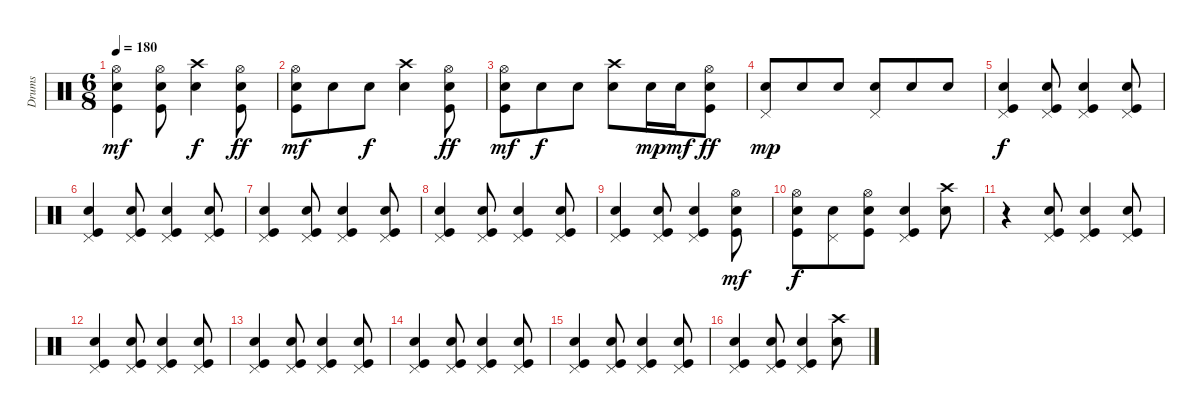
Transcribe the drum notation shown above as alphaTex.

\track ("Drums" "Drums") {instrument percussion}
\staff {score}
\articulation defaults
\ts (6 8)
\tempo 180
\clef neutral
\ks c
("Hi-Hat (open)" "Electric Snare (hit)" "Kick (hit)").4{dy mf} ("Hi-Hat (open)" "Electric Snare (hit)" "Kick (hit)").8 ("Crash high (hit)" "Electric Snare (hit)").4{dy f} ("Hi-Hat (open)" "Electric Snare (hit)" "Kick (hit)").8{dy ff} |
("Hi-Hat (open)" "Electric Snare (hit)" "Kick (hit)").8{dy mf} "Electric Snare (hit)".8 "Electric Snare (hit)".8{dy f} ("Crash high (hit)" "Electric Snare (hit)").4 ("Hi-Hat (open)" "Electric Snare (hit)" "Kick (hit)").8{dy ff} |
("Hi-Hat (open)" "Electric Snare (hit)" "Kick (hit)").8{dy mf} "Electric Snare (hit)".8{dy f} "Electric Snare (hit)".8 ("Crash high (hit)" "Electric Snare (hit)").8 "Electric Snare (hit)".16{dy mp} "Electric Snare (hit)".16{dy mf} ("Hi-Hat (open)" "Electric Snare (hit)" "Kick (hit)").8{dy ff} |
("Pedal Hi-Hat (hit)" "Electric Snare (hit)").8{dy mp} "Electric Snare (hit)".8 "Electric Snare (hit)".8 ("Pedal Hi-Hat (hit)" "Electric Snare (hit)").8 "Electric Snare (hit)".8 "Electric Snare (hit)".8 |
("Pedal Hi-Hat (hit)" "Electric Snare (hit)" "Kick (hit)").4{dy f} ("Pedal Hi-Hat (hit)" "Electric Snare (hit)" "Kick (hit)").8 ("Pedal Hi-Hat (hit)" "Electric Snare (hit)" "Kick (hit)").4 ("Pedal Hi-Hat (hit)" "Electric Snare (hit)" "Kick (hit)").8 |
("Pedal Hi-Hat (hit)" "Electric Snare (hit)" "Kick (hit)").4 ("Pedal Hi-Hat (hit)" "Electric Snare (hit)" "Kick (hit)").8 ("Pedal Hi-Hat (hit)" "Electric Snare (hit)" "Kick (hit)").4 ("Pedal Hi-Hat (hit)" "Electric Snare (hit)" "Kick (hit)").8 |
("Pedal Hi-Hat (hit)" "Electric Snare (hit)" "Kick (hit)").4 ("Pedal Hi-Hat (hit)" "Electric Snare (hit)" "Kick (hit)").8 ("Pedal Hi-Hat (hit)" "Electric Snare (hit)" "Kick (hit)").4 ("Pedal Hi-Hat (hit)" "Electric Snare (hit)" "Kick (hit)").8 |
("Pedal Hi-Hat (hit)" "Electric Snare (hit)" "Kick (hit)").4 ("Pedal Hi-Hat (hit)" "Electric Snare (hit)" "Kick (hit)").8 ("Pedal Hi-Hat (hit)" "Electric Snare (hit)" "Kick (hit)").4 ("Pedal Hi-Hat (hit)" "Electric Snare (hit)" "Kick (hit)").8 |
("Pedal Hi-Hat (hit)" "Electric Snare (hit)" "Kick (hit)").4 ("Pedal Hi-Hat (hit)" "Electric Snare (hit)" "Kick (hit)").8 ("Pedal Hi-Hat (hit)" "Electric Snare (hit)" "Kick (hit)").4 ("Hi-Hat (open)" "Electric Snare (hit)" "Kick (hit)").8{dy mf} |
("Hi-Hat (open)" "Electric Snare (hit)" "Kick (hit)").8{dy f} ("Pedal Hi-Hat (hit)" "Electric Snare (hit)").8 ("Hi-Hat (open)" "Electric Snare (hit)" "Kick (hit)").8 ("Pedal Hi-Hat (hit)" "Electric Snare (hit)" "Kick (hit)").4 ("Crash high (hit)" "Electric Snare (hit)").8 |
r.4 ("Pedal Hi-Hat (hit)" "Electric Snare (hit)" "Kick (hit)").8 ("Pedal Hi-Hat (hit)" "Electric Snare (hit)" "Kick (hit)").4 ("Pedal Hi-Hat (hit)" "Electric Snare (hit)" "Kick (hit)").8 |
("Pedal Hi-Hat (hit)" "Electric Snare (hit)" "Kick (hit)").4 ("Pedal Hi-Hat (hit)" "Electric Snare (hit)" "Kick (hit)").8 ("Pedal Hi-Hat (hit)" "Electric Snare (hit)" "Kick (hit)").4 ("Pedal Hi-Hat (hit)" "Electric Snare (hit)" "Kick (hit)").8 |
("Pedal Hi-Hat (hit)" "Electric Snare (hit)" "Kick (hit)").4 ("Pedal Hi-Hat (hit)" "Electric Snare (hit)" "Kick (hit)").8 ("Pedal Hi-Hat (hit)" "Electric Snare (hit)" "Kick (hit)").4 ("Pedal Hi-Hat (hit)" "Electric Snare (hit)" "Kick (hit)").8 |
("Pedal Hi-Hat (hit)" "Electric Snare (hit)" "Kick (hit)").4 ("Pedal Hi-Hat (hit)" "Electric Snare (hit)" "Kick (hit)").8 ("Pedal Hi-Hat (hit)" "Electric Snare (hit)" "Kick (hit)").4 ("Pedal Hi-Hat (hit)" "Electric Snare (hit)" "Kick (hit)").8 |
("Pedal Hi-Hat (hit)" "Electric Snare (hit)" "Kick (hit)").4 ("Pedal Hi-Hat (hit)" "Electric Snare (hit)" "Kick (hit)").8 ("Pedal Hi-Hat (hit)" "Electric Snare (hit)" "Kick (hit)").4 ("Pedal Hi-Hat (hit)" "Electric Snare (hit)" "Kick (hit)").8 |
("Pedal Hi-Hat (hit)" "Electric Snare (hit)" "Kick (hit)").4 ("Pedal Hi-Hat (hit)" "Electric Snare (hit)" "Kick (hit)").8 ("Pedal Hi-Hat (hit)" "Electric Snare (hit)" "Kick (hit)").4 ("Crash high (hit)" "Electric Snare (hit)").8
